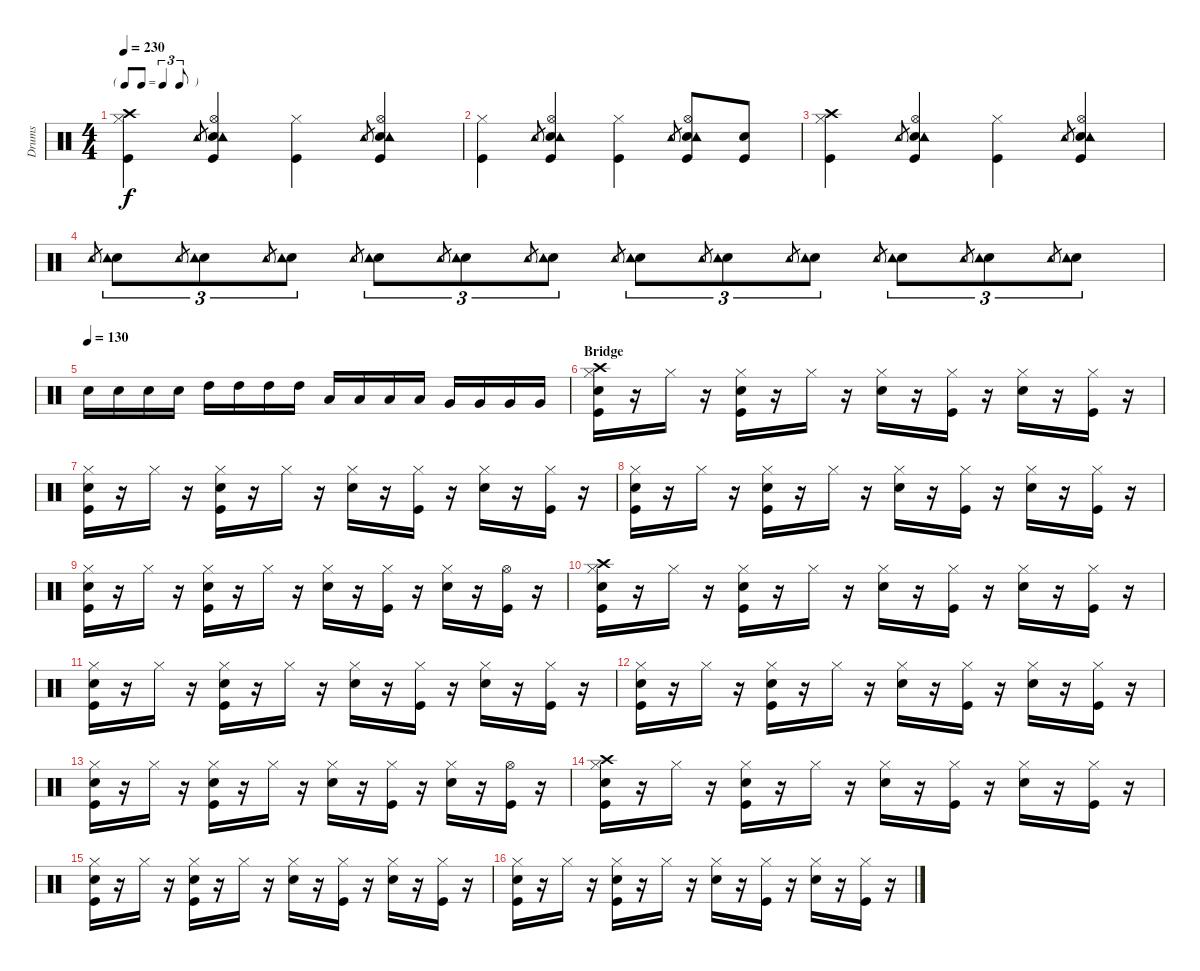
\track ("Drums" "Drums") {instrument percussion}
\staff {score}
\articulation defaults
\ts (4 4)
\tf triplet8th
\tempo 230
\clef neutral
\ks c
("Crash high (hit)" "Hi-Hat (closed)" "Kick (hit)").4{dy f} "Tambourine (hit)".8{gr} ("Hi-Hat (open)" "Electric Snare (hit)" "Kick (hit)" "Tambourine (hit)").4 ("Hi-Hat (closed)" "Kick (hit)").4 "Tambourine (hit)".8{gr} ("Hi-Hat (open)" "Electric Snare (hit)" "Kick (hit)" "Tambourine (hit)").4 |
("Hi-Hat (closed)" "Kick (hit)").4 "Tambourine (hit)".8{gr} ("Hi-Hat (open)" "Electric Snare (hit)" "Kick (hit)" "Tambourine (hit)").4 ("Hi-Hat (closed)" "Kick (hit)").4 "Tambourine (hit)".8{gr} ("Hi-Hat (open)" "Electric Snare (hit)" "Kick (hit)" "Tambourine (hit)").8 ("Electric Snare (hit)" "Kick (hit)").8 |
("Crash high (hit)" "Hi-Hat (closed)" "Kick (hit)").4 "Tambourine (hit)".8{gr} ("Hi-Hat (open)" "Electric Snare (hit)" "Kick (hit)" "Tambourine (hit)").4 ("Hi-Hat (closed)" "Kick (hit)").4 "Tambourine (hit)".8{gr} ("Hi-Hat (open)" "Electric Snare (hit)" "Kick (hit)" "Tambourine (hit)").4 |
"Tambourine (hit)".8{gr} ("Electric Snare (hit)" "Tambourine (hit)").8{tu (3 2)} "Tambourine (hit)".8{gr} ("Electric Snare (hit)" "Tambourine (hit)").8{tu (3 2)} "Tambourine (hit)".8{gr} ("Electric Snare (hit)" "Tambourine (hit)").8{tu (3 2)} "Tambourine (hit)".8{gr} ("Electric Snare (hit)" "Tambourine (hit)").8{tu (3 2)} "Tambourine (hit)".8{gr} ("Electric Snare (hit)" "Tambourine (hit)").8{tu (3 2)} "Tambourine (hit)".8{gr} ("Electric Snare (hit)" "Tambourine (hit)").8{tu (3 2)} "Tambourine (hit)".8{gr} ("Electric Snare (hit)" "Tambourine (hit)").8{tu (3 2)} "Tambourine (hit)".8{gr} ("Electric Snare (hit)" "Tambourine (hit)").8{tu (3 2)} "Tambourine (hit)".8{gr} ("Electric Snare (hit)" "Tambourine (hit)").8{tu (3 2)} "Tambourine (hit)".8{gr} ("Electric Snare (hit)" "Tambourine (hit)").8{tu (3 2)} "Tambourine (hit)".8{gr} ("Electric Snare (hit)" "Tambourine (hit)").8{tu (3 2)} "Tambourine (hit)".8{gr} ("Electric Snare (hit)" "Tambourine (hit)").8{tu (3 2)} |
\tempo (130)
"Electric Snare (hit)".16 "Electric Snare (hit)".16 "Electric Snare (hit)".16 "Electric Snare (hit)".16 "High Tom (hit)".16 "High Tom (hit)".16 "High Tom (hit)".16 "High Tom (hit)".16 "Low Tom (hit)".16 "Low Tom (hit)".16 "Low Tom (hit)".16 "Low Tom (hit)".16 "Very Low Tom (hit)".16 "Very Low Tom (hit)".16 "Very Low Tom (hit)".16 "Very Low Tom (hit)".16 |
\section ("" "Bridge")
("Crash high (hit)" "Electric Snare (hit)" "Hi-Hat (closed)" "Kick (hit)").16 r.16 "Hi-Hat (closed)".16 r.16 ("Electric Snare (hit)" "Hi-Hat (closed)" "Kick (hit)").16 r.16 "Hi-Hat (closed)".16 r.16 ("Electric Snare (hit)" "Hi-Hat (closed)").16 r.16 ("Hi-Hat (closed)" "Kick (hit)").16 r.16 ("Electric Snare (hit)" "Hi-Hat (closed)").16 r.16 ("Hi-Hat (closed)" "Kick (hit)").16 r.16 |
("Electric Snare (hit)" "Hi-Hat (closed)" "Kick (hit)").16 r.16 "Hi-Hat (closed)".16 r.16 ("Electric Snare (hit)" "Hi-Hat (closed)" "Kick (hit)").16 r.16 "Hi-Hat (closed)".16 r.16 ("Electric Snare (hit)" "Hi-Hat (closed)").16 r.16 ("Hi-Hat (closed)" "Kick (hit)").16 r.16 ("Electric Snare (hit)" "Hi-Hat (closed)").16 r.16 ("Hi-Hat (closed)" "Kick (hit)").16 r.16 |
("Electric Snare (hit)" "Hi-Hat (closed)" "Kick (hit)").16 r.16 "Hi-Hat (closed)".16 r.16 ("Electric Snare (hit)" "Hi-Hat (closed)" "Kick (hit)").16 r.16 "Hi-Hat (closed)".16 r.16 ("Electric Snare (hit)" "Hi-Hat (closed)").16 r.16 ("Hi-Hat (closed)" "Kick (hit)").16 r.16 ("Electric Snare (hit)" "Hi-Hat (closed)").16 r.16 ("Hi-Hat (closed)" "Kick (hit)").16 r.16 |
("Electric Snare (hit)" "Hi-Hat (closed)" "Kick (hit)").16 r.16 "Hi-Hat (closed)".16 r.16 ("Electric Snare (hit)" "Hi-Hat (closed)" "Kick (hit)").16 r.16 "Hi-Hat (closed)".16 r.16 ("Electric Snare (hit)" "Hi-Hat (closed)").16 r.16 ("Hi-Hat (closed)" "Kick (hit)").16 r.16 ("Electric Snare (hit)" "Hi-Hat (closed)").16 r.16 ("Hi-Hat (open)" "Kick (hit)").16 r.16 |
("Crash high (hit)" "Electric Snare (hit)" "Hi-Hat (closed)" "Kick (hit)").16 r.16 "Hi-Hat (closed)".16 r.16 ("Electric Snare (hit)" "Hi-Hat (closed)" "Kick (hit)").16 r.16 "Hi-Hat (closed)".16 r.16 ("Electric Snare (hit)" "Hi-Hat (closed)").16 r.16 ("Hi-Hat (closed)" "Kick (hit)").16 r.16 ("Electric Snare (hit)" "Hi-Hat (closed)").16 r.16 ("Hi-Hat (closed)" "Kick (hit)").16 r.16 |
("Electric Snare (hit)" "Hi-Hat (closed)" "Kick (hit)").16 r.16 "Hi-Hat (closed)".16 r.16 ("Electric Snare (hit)" "Hi-Hat (closed)" "Kick (hit)").16 r.16 "Hi-Hat (closed)".16 r.16 ("Electric Snare (hit)" "Hi-Hat (closed)").16 r.16 ("Hi-Hat (closed)" "Kick (hit)").16 r.16 ("Electric Snare (hit)" "Hi-Hat (closed)").16 r.16 ("Hi-Hat (closed)" "Kick (hit)").16 r.16 |
("Electric Snare (hit)" "Hi-Hat (closed)" "Kick (hit)").16 r.16 "Hi-Hat (closed)".16 r.16 ("Electric Snare (hit)" "Hi-Hat (closed)" "Kick (hit)").16 r.16 "Hi-Hat (closed)".16 r.16 ("Electric Snare (hit)" "Hi-Hat (closed)").16 r.16 ("Hi-Hat (closed)" "Kick (hit)").16 r.16 ("Electric Snare (hit)" "Hi-Hat (closed)").16 r.16 ("Hi-Hat (closed)" "Kick (hit)").16 r.16 |
("Electric Snare (hit)" "Hi-Hat (closed)" "Kick (hit)").16 r.16 "Hi-Hat (closed)".16 r.16 ("Electric Snare (hit)" "Hi-Hat (closed)" "Kick (hit)").16 r.16 "Hi-Hat (closed)".16 r.16 ("Electric Snare (hit)" "Hi-Hat (closed)").16 r.16 ("Hi-Hat (closed)" "Kick (hit)").16 r.16 ("Electric Snare (hit)" "Hi-Hat (closed)").16 r.16 ("Hi-Hat (open)" "Kick (hit)").16 r.16 |
("Crash high (hit)" "Electric Snare (hit)" "Hi-Hat (closed)" "Kick (hit)").16 r.16 "Hi-Hat (closed)".16 r.16 ("Electric Snare (hit)" "Hi-Hat (closed)" "Kick (hit)").16 r.16 "Hi-Hat (closed)".16 r.16 ("Electric Snare (hit)" "Hi-Hat (closed)").16 r.16 ("Hi-Hat (closed)" "Kick (hit)").16 r.16 ("Electric Snare (hit)" "Hi-Hat (closed)").16 r.16 ("Hi-Hat (closed)" "Kick (hit)").16 r.16 |
("Electric Snare (hit)" "Hi-Hat (closed)" "Kick (hit)").16 r.16 "Hi-Hat (closed)".16 r.16 ("Electric Snare (hit)" "Hi-Hat (closed)" "Kick (hit)").16 r.16 "Hi-Hat (closed)".16 r.16 ("Electric Snare (hit)" "Hi-Hat (closed)").16 r.16 ("Hi-Hat (closed)" "Kick (hit)").16 r.16 ("Electric Snare (hit)" "Hi-Hat (closed)").16 r.16 ("Hi-Hat (closed)" "Kick (hit)").16 r.16 |
("Electric Snare (hit)" "Hi-Hat (closed)" "Kick (hit)").16 r.16 "Hi-Hat (closed)".16 r.16 ("Electric Snare (hit)" "Hi-Hat (closed)" "Kick (hit)").16 r.16 "Hi-Hat (closed)".16 r.16 ("Electric Snare (hit)" "Hi-Hat (closed)").16 r.16 ("Hi-Hat (closed)" "Kick (hit)").16 r.16 ("Electric Snare (hit)" "Hi-Hat (closed)").16 r.16 ("Hi-Hat (closed)" "Kick (hit)").16 r.16
